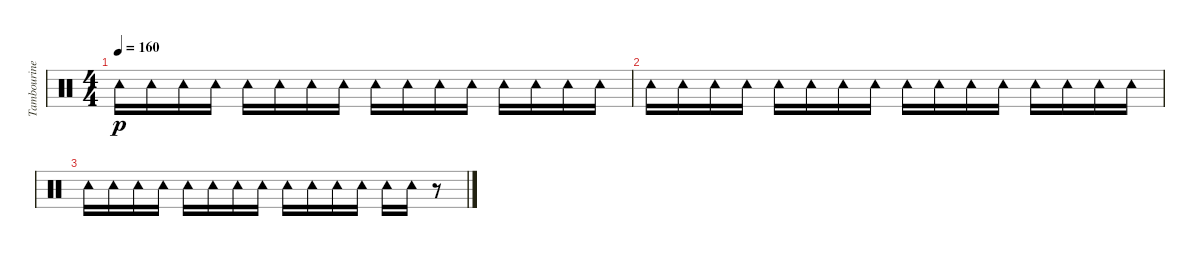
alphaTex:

\track ("Tambourine" "Tambourine") {instrument percussion}
\staff {score}
\articulation defaults
\ts (4 4)
\tempo 160
\clef neutral
\ks c "Tambourine (hit)".16{dy p} "Tambourine (hit)".16 "Tambourine (hit)".16 "Tambourine (hit)".16 "Tambourine (hit)".16 "Tambourine (hit)".16 "Tambourine (hit)".16 "Tambourine (hit)".16 "Tambourine (hit)".16 "Tambourine (hit)".16 "Tambourine (hit)".16 "Tambourine (hit)".16 "Tambourine (hit)".16 "Tambourine (hit)".16 "Tambourine (hit)".16 "Tambourine (hit)".16
|
"Tambourine (hit)".16 "Tambourine (hit)".16 "Tambourine (hit)".16 "Tambourine (hit)".16 "Tambourine (hit)".16 "Tambourine (hit)".16 "Tambourine (hit)".16 "Tambourine (hit)".16 "Tambourine (hit)".16 "Tambourine (hit)".16 "Tambourine (hit)".16 "Tambourine (hit)".16 "Tambourine (hit)".16 "Tambourine (hit)".16 "Tambourine (hit)".16 "Tambourine (hit)".16 |
"Tambourine (hit)".16 "Tambourine (hit)".16 "Tambourine (hit)".16 "Tambourine (hit)".16 "Tambourine (hit)".16 "Tambourine (hit)".16 "Tambourine (hit)".16 "Tambourine (hit)".16 "Tambourine (hit)".16 "Tambourine (hit)".16 "Tambourine (hit)".16 "Tambourine (hit)".16 "Tambourine (hit)".16 "Tambourine (hit)".16 r.8
